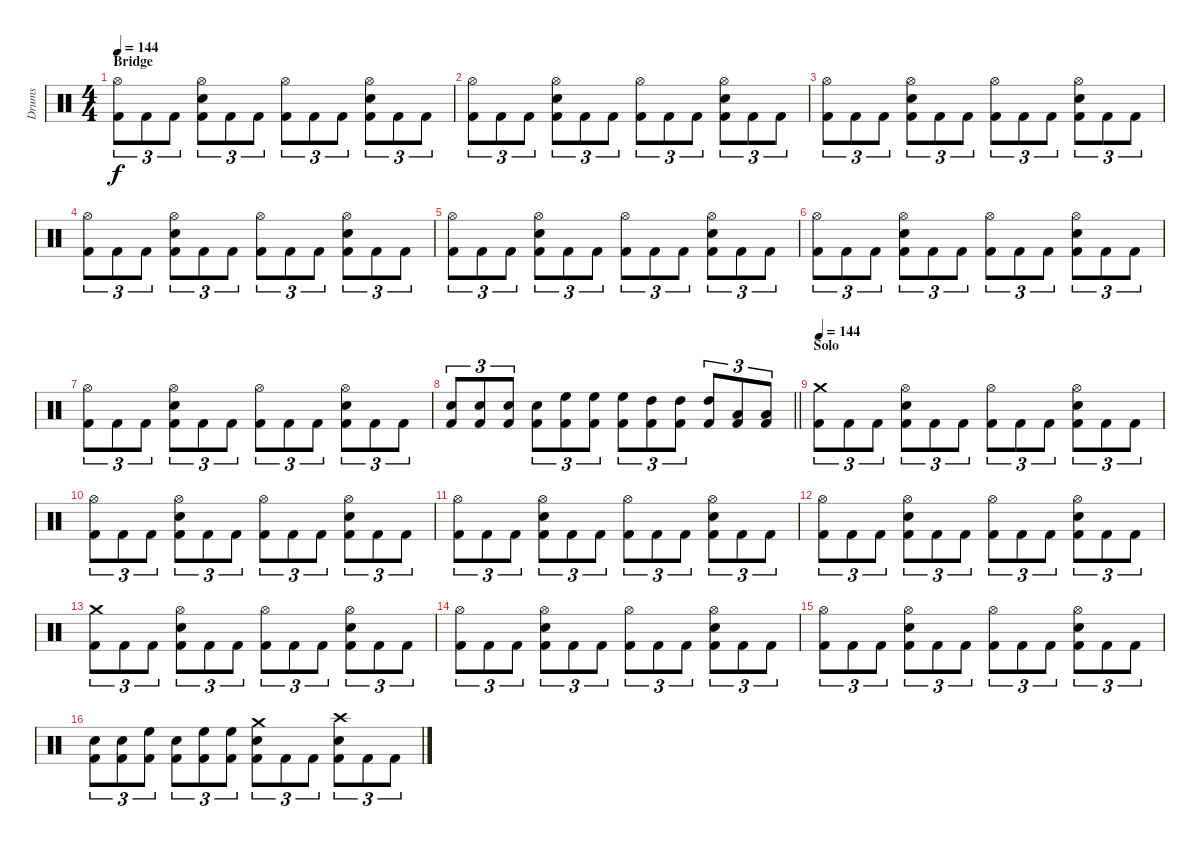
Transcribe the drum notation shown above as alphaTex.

\track ("Drums" "Drums") {instrument percussion}
\staff {score}
\articulation defaults
\ts (4 4)
\section ("" "Bridge")
\tempo 144
\clef neutral
\ks c
("Hi-Hat (open)" "Kick (hit) 2").8{tu (3 2) dy f} "Kick (hit) 2".8{tu (3 2)} "Kick (hit) 2".8{tu (3 2)} ("Hi-Hat (open)" "Snare (hit) 2" "Kick (hit) 2").8{tu (3 2)} "Kick (hit) 2".8{tu (3 2)} "Kick (hit) 2".8{tu (3 2)} ("Hi-Hat (open)" "Kick (hit) 2").8{tu (3 2)} "Kick (hit) 2".8{tu (3 2)} "Kick (hit) 2".8{tu (3 2)} ("Hi-Hat (open)" "Snare (hit) 2" "Kick (hit) 2").8{tu (3 2)} "Kick (hit) 2".8{tu (3 2)} "Kick (hit) 2".8{tu (3 2)} |
("Hi-Hat (open)" "Kick (hit) 2").8{tu (3 2)} "Kick (hit) 2".8{tu (3 2)} "Kick (hit) 2".8{tu (3 2)} ("Hi-Hat (open)" "Snare (hit) 2" "Kick (hit) 2").8{tu (3 2)} "Kick (hit) 2".8{tu (3 2)} "Kick (hit) 2".8{tu (3 2)} ("Hi-Hat (open)" "Kick (hit) 2").8{tu (3 2)} "Kick (hit) 2".8{tu (3 2)} "Kick (hit) 2".8{tu (3 2)} ("Hi-Hat (open)" "Snare (hit) 2" "Kick (hit) 2").8{tu (3 2)} "Kick (hit) 2".8{tu (3 2)} "Kick (hit) 2".8{tu (3 2)} |
("Hi-Hat (open)" "Kick (hit) 2").8{tu (3 2)} "Kick (hit) 2".8{tu (3 2)} "Kick (hit) 2".8{tu (3 2)} ("Hi-Hat (open)" "Snare (hit) 2" "Kick (hit) 2").8{tu (3 2)} "Kick (hit) 2".8{tu (3 2)} "Kick (hit) 2".8{tu (3 2)} ("Hi-Hat (open)" "Kick (hit) 2").8{tu (3 2)} "Kick (hit) 2".8{tu (3 2)} "Kick (hit) 2".8{tu (3 2)} ("Hi-Hat (open)" "Snare (hit) 2" "Kick (hit) 2").8{tu (3 2)} "Kick (hit) 2".8{tu (3 2)} "Kick (hit) 2".8{tu (3 2)} |
("Hi-Hat (open)" "Kick (hit) 2").8{tu (3 2)} "Kick (hit) 2".8{tu (3 2)} "Kick (hit) 2".8{tu (3 2)} ("Hi-Hat (open)" "Snare (hit) 2" "Kick (hit) 2").8{tu (3 2)} "Kick (hit) 2".8{tu (3 2)} "Kick (hit) 2".8{tu (3 2)} ("Hi-Hat (open)" "Kick (hit) 2").8{tu (3 2)} "Kick (hit) 2".8{tu (3 2)} "Kick (hit) 2".8{tu (3 2)} ("Hi-Hat (open)" "Snare (hit) 2" "Kick (hit) 2").8{tu (3 2)} "Kick (hit) 2".8{tu (3 2)} "Kick (hit) 2".8{tu (3 2)} |
("Hi-Hat (open)" "Kick (hit) 2").8{tu (3 2)} "Kick (hit) 2".8{tu (3 2)} "Kick (hit) 2".8{tu (3 2)} ("Hi-Hat (open)" "Snare (hit) 2" "Kick (hit) 2").8{tu (3 2)} "Kick (hit) 2".8{tu (3 2)} "Kick (hit) 2".8{tu (3 2)} ("Hi-Hat (open)" "Kick (hit) 2").8{tu (3 2)} "Kick (hit) 2".8{tu (3 2)} "Kick (hit) 2".8{tu (3 2)} ("Hi-Hat (open)" "Snare (hit) 2" "Kick (hit) 2").8{tu (3 2)} "Kick (hit) 2".8{tu (3 2)} "Kick (hit) 2".8{tu (3 2)} |
("Hi-Hat (open)" "Kick (hit) 2").8{tu (3 2)} "Kick (hit) 2".8{tu (3 2)} "Kick (hit) 2".8{tu (3 2)} ("Hi-Hat (open)" "Snare (hit) 2" "Kick (hit) 2").8{tu (3 2)} "Kick (hit) 2".8{tu (3 2)} "Kick (hit) 2".8{tu (3 2)} ("Hi-Hat (open)" "Kick (hit) 2").8{tu (3 2)} "Kick (hit) 2".8{tu (3 2)} "Kick (hit) 2".8{tu (3 2)} ("Hi-Hat (open)" "Snare (hit) 2" "Kick (hit) 2").8{tu (3 2)} "Kick (hit) 2".8{tu (3 2)} "Kick (hit) 2".8{tu (3 2)} |
("Hi-Hat (open)" "Kick (hit) 2").8{tu (3 2)} "Kick (hit) 2".8{tu (3 2)} "Kick (hit) 2".8{tu (3 2)} ("Hi-Hat (open)" "Snare (hit) 2" "Kick (hit) 2").8{tu (3 2)} "Kick (hit) 2".8{tu (3 2)} "Kick (hit) 2".8{tu (3 2)} ("Hi-Hat (open)" "Kick (hit) 2").8{tu (3 2)} "Kick (hit) 2".8{tu (3 2)} "Kick (hit) 2".8{tu (3 2)} ("Hi-Hat (open)" "Snare (hit) 2" "Kick (hit) 2").8{tu (3 2)} "Kick (hit) 2".8{tu (3 2)} "Kick (hit) 2".8{tu (3 2)} |
\barLineRight lightlight
("Snare (hit) 2" "Kick (hit) 2").8{tu (3 2)} ("Snare (hit) 2" "Kick (hit) 2").8{tu (3 2)} ("Snare (hit) 2" "Kick (hit) 2").8{tu (3 2)} ("Snare (hit) 2" "Kick (hit) 2").8{tu (3 2)} ("High Floor Tom (hit)" "Kick (hit) 2").8{tu (3 2)} ("High Floor Tom (hit)" "Kick (hit) 2").8{tu (3 2)} ("High Floor Tom (hit)" "Kick (hit) 2").8{tu (3 2)} ("High Tom (hit)" "Kick (hit) 2").8{tu (3 2)} ("High Tom (hit)" "Kick (hit) 2").8{tu (3 2)} ("High Tom (hit)" "Kick (hit) 2").8{tu (3 2)} ("Low Tom (hit)" "Kick (hit) 2").8{tu (3 2)} ("Low Tom (hit)" "Kick (hit) 2").8{tu (3 2)} |
\section ("" "Solo")
\tempo 144
("Crash medium (hit)" "Kick (hit) 2").8{tu (3 2)} "Kick (hit) 2".8{tu (3 2)} "Kick (hit) 2".8{tu (3 2)} ("Hi-Hat (open)" "Snare (hit) 2" "Kick (hit) 2").8{tu (3 2)} "Kick (hit) 2".8{tu (3 2)} "Kick (hit) 2".8{tu (3 2)} ("Hi-Hat (open)" "Kick (hit) 2").8{tu (3 2)} "Kick (hit) 2".8{tu (3 2)} "Kick (hit) 2".8{tu (3 2)} ("Hi-Hat (open)" "Snare (hit) 2" "Kick (hit) 2").8{tu (3 2)} "Kick (hit) 2".8{tu (3 2)} "Kick (hit) 2".8{tu (3 2)} |
("Hi-Hat (open)" "Kick (hit) 2").8{tu (3 2)} "Kick (hit) 2".8{tu (3 2)} "Kick (hit) 2".8{tu (3 2)} ("Hi-Hat (open)" "Snare (hit) 2" "Kick (hit) 2").8{tu (3 2)} "Kick (hit) 2".8{tu (3 2)} "Kick (hit) 2".8{tu (3 2)} ("Hi-Hat (open)" "Kick (hit) 2").8{tu (3 2)} "Kick (hit) 2".8{tu (3 2)} "Kick (hit) 2".8{tu (3 2)} ("Hi-Hat (open)" "Snare (hit) 2" "Kick (hit) 2").8{tu (3 2)} "Kick (hit) 2".8{tu (3 2)} "Kick (hit) 2".8{tu (3 2)} |
("Hi-Hat (open)" "Kick (hit) 2").8{tu (3 2)} "Kick (hit) 2".8{tu (3 2)} "Kick (hit) 2".8{tu (3 2)} ("Hi-Hat (open)" "Snare (hit) 2" "Kick (hit) 2").8{tu (3 2)} "Kick (hit) 2".8{tu (3 2)} "Kick (hit) 2".8{tu (3 2)} ("Hi-Hat (open)" "Kick (hit) 2").8{tu (3 2)} "Kick (hit) 2".8{tu (3 2)} "Kick (hit) 2".8{tu (3 2)} ("Hi-Hat (open)" "Snare (hit) 2" "Kick (hit) 2").8{tu (3 2)} "Kick (hit) 2".8{tu (3 2)} "Kick (hit) 2".8{tu (3 2)} |
("Hi-Hat (open)" "Kick (hit) 2").8{tu (3 2)} "Kick (hit) 2".8{tu (3 2)} "Kick (hit) 2".8{tu (3 2)} ("Hi-Hat (open)" "Snare (hit) 2" "Kick (hit) 2").8{tu (3 2)} "Kick (hit) 2".8{tu (3 2)} "Kick (hit) 2".8{tu (3 2)} ("Hi-Hat (open)" "Kick (hit) 2").8{tu (3 2)} "Kick (hit) 2".8{tu (3 2)} "Kick (hit) 2".8{tu (3 2)} ("Hi-Hat (open)" "Snare (hit) 2" "Kick (hit) 2").8{tu (3 2)} "Kick (hit) 2".8{tu (3 2)} "Kick (hit) 2".8{tu (3 2)} |
("Crash medium (hit)" "Kick (hit) 2").8{tu (3 2)} "Kick (hit) 2".8{tu (3 2)} "Kick (hit) 2".8{tu (3 2)} ("Hi-Hat (open)" "Snare (hit) 2" "Kick (hit) 2").8{tu (3 2)} "Kick (hit) 2".8{tu (3 2)} "Kick (hit) 2".8{tu (3 2)} ("Hi-Hat (open)" "Kick (hit) 2").8{tu (3 2)} "Kick (hit) 2".8{tu (3 2)} "Kick (hit) 2".8{tu (3 2)} ("Hi-Hat (open)" "Snare (hit) 2" "Kick (hit) 2").8{tu (3 2)} "Kick (hit) 2".8{tu (3 2)} "Kick (hit) 2".8{tu (3 2)} |
("Hi-Hat (open)" "Kick (hit) 2").8{tu (3 2)} "Kick (hit) 2".8{tu (3 2)} "Kick (hit) 2".8{tu (3 2)} ("Hi-Hat (open)" "Snare (hit) 2" "Kick (hit) 2").8{tu (3 2)} "Kick (hit) 2".8{tu (3 2)} "Kick (hit) 2".8{tu (3 2)} ("Hi-Hat (open)" "Kick (hit) 2").8{tu (3 2)} "Kick (hit) 2".8{tu (3 2)} "Kick (hit) 2".8{tu (3 2)} ("Hi-Hat (open)" "Snare (hit) 2" "Kick (hit) 2").8{tu (3 2)} "Kick (hit) 2".8{tu (3 2)} "Kick (hit) 2".8{tu (3 2)} |
("Hi-Hat (open)" "Kick (hit) 2").8{tu (3 2)} "Kick (hit) 2".8{tu (3 2)} "Kick (hit) 2".8{tu (3 2)} ("Hi-Hat (open)" "Snare (hit) 2" "Kick (hit) 2").8{tu (3 2)} "Kick (hit) 2".8{tu (3 2)} "Kick (hit) 2".8{tu (3 2)} ("Hi-Hat (open)" "Kick (hit) 2").8{tu (3 2)} "Kick (hit) 2".8{tu (3 2)} "Kick (hit) 2".8{tu (3 2)} ("Hi-Hat (open)" "Snare (hit) 2" "Kick (hit) 2").8{tu (3 2)} "Kick (hit) 2".8{tu (3 2)} "Kick (hit) 2".8{tu (3 2)} |
("Snare (hit) 2" "Kick (hit) 2").8{tu (3 2)} ("Snare (hit) 2" "Kick (hit) 2").8{tu (3 2)} ("High Floor Tom (hit)" "Kick (hit) 2").8{tu (3 2)} ("Snare (hit) 2" "Kick (hit) 2").8{tu (3 2)} ("High Floor Tom (hit)" "Kick (hit) 2").8{tu (3 2)} ("High Floor Tom (hit)" "Kick (hit) 2").8{tu (3 2)} ("Snare (hit) 2" "Crash medium (hit)" "Kick (hit) 2").8{tu (3 2)} "Kick (hit) 2".8{tu (3 2)} "Kick (hit) 2".8{tu (3 2)} ("Crash high (hit)" "Snare (hit) 2" "Kick (hit) 2").8{tu (3 2)} "Kick (hit) 2".8{tu (3 2)} "Kick (hit) 2".8{tu (3 2)}
